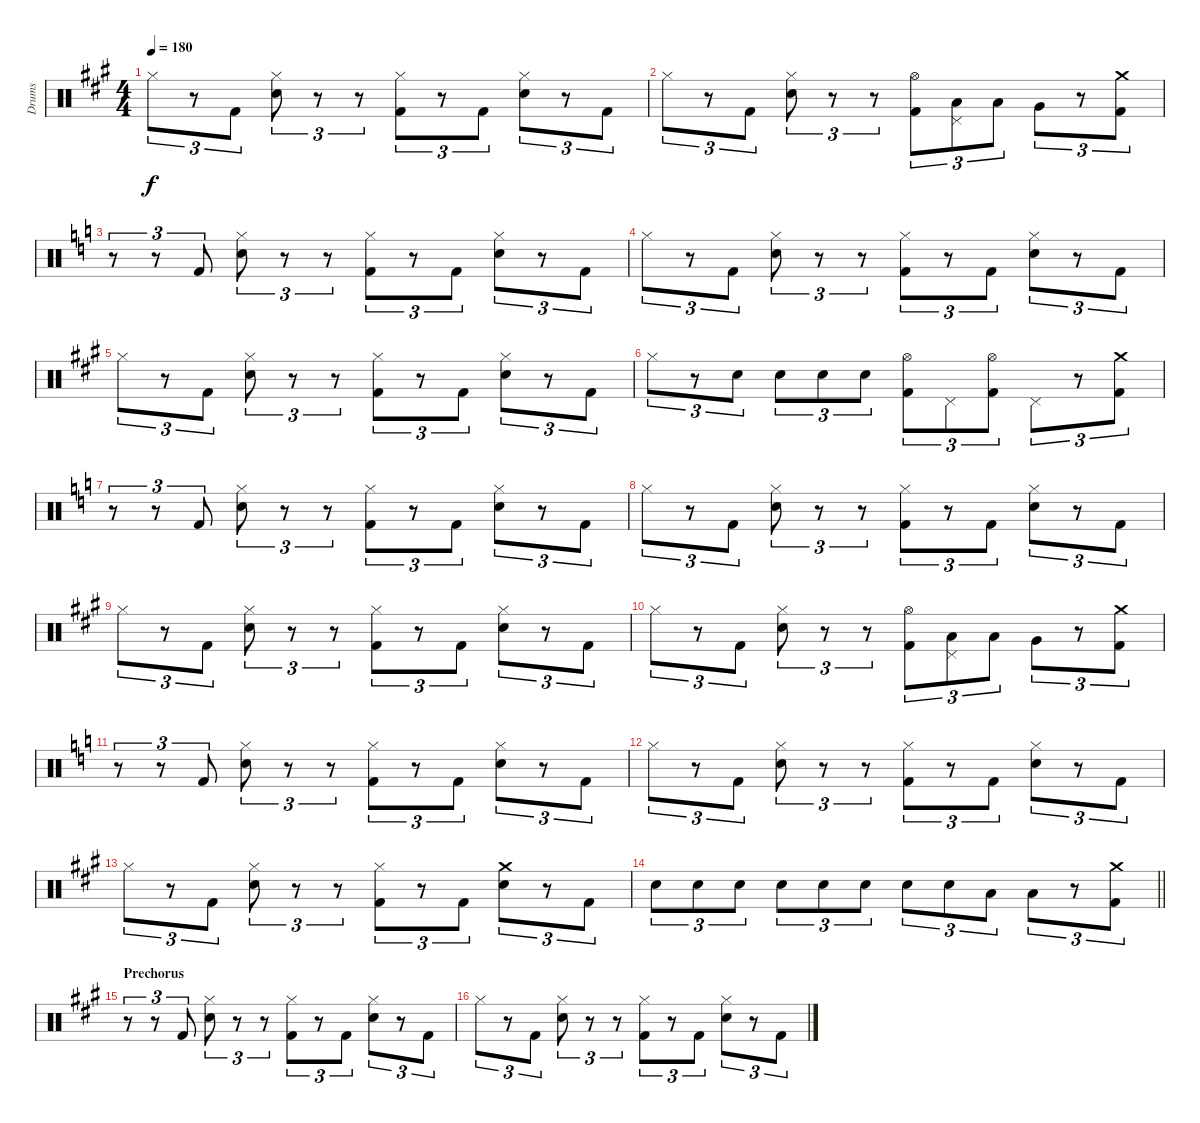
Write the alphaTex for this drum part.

\track ("Drums" "Drums") {instrument percussion}
\staff {score}
\articulation defaults
\ts (4 4)
\tempo 180
\clef neutral
\ks a "Hi-Hat (closed)".8{tu (3 2) dy f}
r.8{tu (3 2)} "Kick (hit) 2".8{tu (3 2)} ("Hi-Hat (closed)" "Snare (hit) 2").8{tu (3 2)} r.8{tu (3 2)} r.8{tu (3 2)} ("Hi-Hat (closed)" "Kick (hit) 2").8{tu (3 2)} r.8{tu (3 2)} "Kick (hit) 2".8{tu (3 2)} ("Hi-Hat (closed)" "Snare (hit) 2").8{tu (3 2)} r.8{tu (3 2)} "Kick (hit) 2".8{tu (3 2)} |
"Hi-Hat (closed)".8{tu (3 2)} r.8{tu (3 2)} "Kick (hit) 2".8{tu (3 2)} ("Hi-Hat (closed)" "Snare (hit) 2").8{tu (3 2)} r.8{tu (3 2)} r.8{tu (3 2)} ("Hi-Hat (open)" "Kick (hit) 2").8{tu (3 2)} ("Pedal Hi-Hat (hit)" "Low Tom (hit)").8{tu (3 2)} "Low Tom (hit)".8{tu (3 2)} "Very Low Tom (hit)".8{tu (3 2)} r.8{tu (3 2)} ("Crash medium (hit)" "Kick (hit) 2").8{tu (3 2)} |
\ks c
r.8{tu (3 2)} r.8{tu (3 2)} "Kick (hit) 2".8{tu (3 2)} ("Hi-Hat (closed)" "Snare (hit) 2").8{tu (3 2)} r.8{tu (3 2)} r.8{tu (3 2)} ("Hi-Hat (closed)" "Kick (hit) 2").8{tu (3 2)} r.8{tu (3 2)} "Kick (hit) 2".8{tu (3 2)} ("Hi-Hat (closed)" "Snare (hit) 2").8{tu (3 2)} r.8{tu (3 2)} "Kick (hit) 2".8{tu (3 2)} |
"Hi-Hat (closed)".8{tu (3 2)} r.8{tu (3 2)} "Kick (hit) 2".8{tu (3 2)} ("Hi-Hat (closed)" "Snare (hit) 2").8{tu (3 2)} r.8{tu (3 2)} r.8{tu (3 2)} ("Hi-Hat (closed)" "Kick (hit) 2").8{tu (3 2)} r.8{tu (3 2)} "Kick (hit) 2".8{tu (3 2)} ("Hi-Hat (closed)" "Snare (hit) 2").8{tu (3 2)} r.8{tu (3 2)} "Kick (hit) 2".8{tu (3 2)} |
\ks a "Hi-Hat (closed)".8{tu (3 2)}
r.8{tu (3 2)} "Kick (hit) 2".8{tu (3 2)} ("Hi-Hat (closed)" "Snare (hit) 2").8{tu (3 2)} r.8{tu (3 2)} r.8{tu (3 2)} ("Hi-Hat (closed)" "Kick (hit) 2").8{tu (3 2)} r.8{tu (3 2)} "Kick (hit) 2".8{tu (3 2)} ("Hi-Hat (closed)" "Snare (hit) 2").8{tu (3 2)} r.8{tu (3 2)} "Kick (hit) 2".8{tu (3 2)} |
"Hi-Hat (closed)".8{tu (3 2)} r.8{tu (3 2)} "Snare (hit) 2".8{tu (3 2)} "Snare (hit) 2".8{tu (3 2)} "Snare (hit) 2".8{tu (3 2)} "Snare (hit) 2".8{tu (3 2)} ("Hi-Hat (open)" "Kick (hit) 2").8{tu (3 2)} "Pedal Hi-Hat (hit)".8{tu (3 2)} ("Hi-Hat (open)" "Kick (hit) 2").8{tu (3 2)} "Pedal Hi-Hat (hit)".8{tu (3 2)} r.8{tu (3 2)} ("Crash medium (hit)" "Kick (hit) 2").8{tu (3 2)} |
\ks c
r.8{tu (3 2)} r.8{tu (3 2)} "Kick (hit) 2".8{tu (3 2)} ("Hi-Hat (closed)" "Snare (hit) 2").8{tu (3 2)} r.8{tu (3 2)} r.8{tu (3 2)} ("Hi-Hat (closed)" "Kick (hit) 2").8{tu (3 2)} r.8{tu (3 2)} "Kick (hit) 2".8{tu (3 2)} ("Hi-Hat (closed)" "Snare (hit) 2").8{tu (3 2)} r.8{tu (3 2)} "Kick (hit) 2".8{tu (3 2)} |
"Hi-Hat (closed)".8{tu (3 2)} r.8{tu (3 2)} "Kick (hit) 2".8{tu (3 2)} ("Hi-Hat (closed)" "Snare (hit) 2").8{tu (3 2)} r.8{tu (3 2)} r.8{tu (3 2)} ("Hi-Hat (closed)" "Kick (hit) 2").8{tu (3 2)} r.8{tu (3 2)} "Kick (hit) 2".8{tu (3 2)} ("Hi-Hat (closed)" "Snare (hit) 2").8{tu (3 2)} r.8{tu (3 2)} "Kick (hit) 2".8{tu (3 2)} |
\ks a "Hi-Hat (closed)".8{tu (3 2)}
r.8{tu (3 2)} "Kick (hit) 2".8{tu (3 2)} ("Hi-Hat (closed)" "Snare (hit) 2").8{tu (3 2)} r.8{tu (3 2)} r.8{tu (3 2)} ("Hi-Hat (closed)" "Kick (hit) 2").8{tu (3 2)} r.8{tu (3 2)} "Kick (hit) 2".8{tu (3 2)} ("Hi-Hat (closed)" "Snare (hit) 2").8{tu (3 2)} r.8{tu (3 2)} "Kick (hit) 2".8{tu (3 2)} |
"Hi-Hat (closed)".8{tu (3 2)} r.8{tu (3 2)} "Kick (hit) 2".8{tu (3 2)} ("Hi-Hat (closed)" "Snare (hit) 2").8{tu (3 2)} r.8{tu (3 2)} r.8{tu (3 2)} ("Hi-Hat (open)" "Kick (hit) 2").8{tu (3 2)} ("Pedal Hi-Hat (hit)" "Low Tom (hit)").8{tu (3 2)} "Low Tom (hit)".8{tu (3 2)} "Very Low Tom (hit)".8{tu (3 2)} r.8{tu (3 2)} ("Crash medium (hit)" "Kick (hit) 2").8{tu (3 2)} |
\ks c
r.8{tu (3 2)} r.8{tu (3 2)} "Kick (hit) 2".8{tu (3 2)} ("Hi-Hat (closed)" "Snare (hit) 2").8{tu (3 2)} r.8{tu (3 2)} r.8{tu (3 2)} ("Hi-Hat (closed)" "Kick (hit) 2").8{tu (3 2)} r.8{tu (3 2)} "Kick (hit) 2".8{tu (3 2)} ("Hi-Hat (closed)" "Snare (hit) 2").8{tu (3 2)} r.8{tu (3 2)} "Kick (hit) 2".8{tu (3 2)} |
"Hi-Hat (closed)".8{tu (3 2)} r.8{tu (3 2)} "Kick (hit) 2".8{tu (3 2)} ("Hi-Hat (closed)" "Snare (hit) 2").8{tu (3 2)} r.8{tu (3 2)} r.8{tu (3 2)} ("Hi-Hat (closed)" "Kick (hit) 2").8{tu (3 2)} r.8{tu (3 2)} "Kick (hit) 2".8{tu (3 2)} ("Hi-Hat (closed)" "Snare (hit) 2").8{tu (3 2)} r.8{tu (3 2)} "Kick (hit) 2".8{tu (3 2)} |
\ks a "Hi-Hat (closed)".8{tu (3 2)}
r.8{tu (3 2)} "Kick (hit) 2".8{tu (3 2)} ("Hi-Hat (closed)" "Snare (hit) 2").8{tu (3 2)} r.8{tu (3 2)} r.8{tu (3 2)} ("Hi-Hat (closed)" "Kick (hit) 2").8{tu (3 2)} r.8{tu (3 2)} "Kick (hit) 2".8{tu (3 2)} ("Crash medium (hit)" "Snare (hit) 2").8{tu (3 2)} r.8{tu (3 2)} "Kick (hit) 2".8{tu (3 2)} |
\barLineRight lightlight "Snare (hit) 2".8{tu (3 2)} "Snare (hit) 2".8{tu (3 2)} "Snare (hit) 2".8{tu (3 2)} "Snare (hit) 2".8{tu (3 2)} "Snare (hit) 2".8{tu (3 2)} "Snare (hit) 2".8{tu (3 2)} "Snare (hit) 2".8{tu (3 2)} "Snare (hit) 2".8{tu (3 2)} "Low Tom (hit)".8{tu (3 2)} "Low Tom (hit)".8{tu (3 2)}
r.8{tu (3 2)} ("Crash medium (hit)" "Kick (hit) 2").8{tu (3 2)} |
\section ("" "Prechorus")
r.8{tu (3 2)} r.8{tu (3 2)} "Kick (hit) 2".8{tu (3 2)} ("Hi-Hat (closed)" "Snare (hit) 2").8{tu (3 2)} r.8{tu (3 2)} r.8{tu (3 2)} ("Hi-Hat (closed)" "Kick (hit) 2").8{tu (3 2)} r.8{tu (3 2)} "Kick (hit) 2".8{tu (3 2)} ("Hi-Hat (closed)" "Snare (hit) 2").8{tu (3 2)} r.8{tu (3 2)} "Kick (hit) 2".8{tu (3 2)} |
"Hi-Hat (closed)".8{tu (3 2)} r.8{tu (3 2)} "Kick (hit) 2".8{tu (3 2)} ("Hi-Hat (closed)" "Snare (hit) 2").8{tu (3 2)} r.8{tu (3 2)} r.8{tu (3 2)} ("Hi-Hat (closed)" "Kick (hit) 2").8{tu (3 2)} r.8{tu (3 2)} "Kick (hit) 2".8{tu (3 2)} ("Hi-Hat (closed)" "Snare (hit) 2").8{tu (3 2)} r.8{tu (3 2)} "Kick (hit) 2".8{tu (3 2)}
